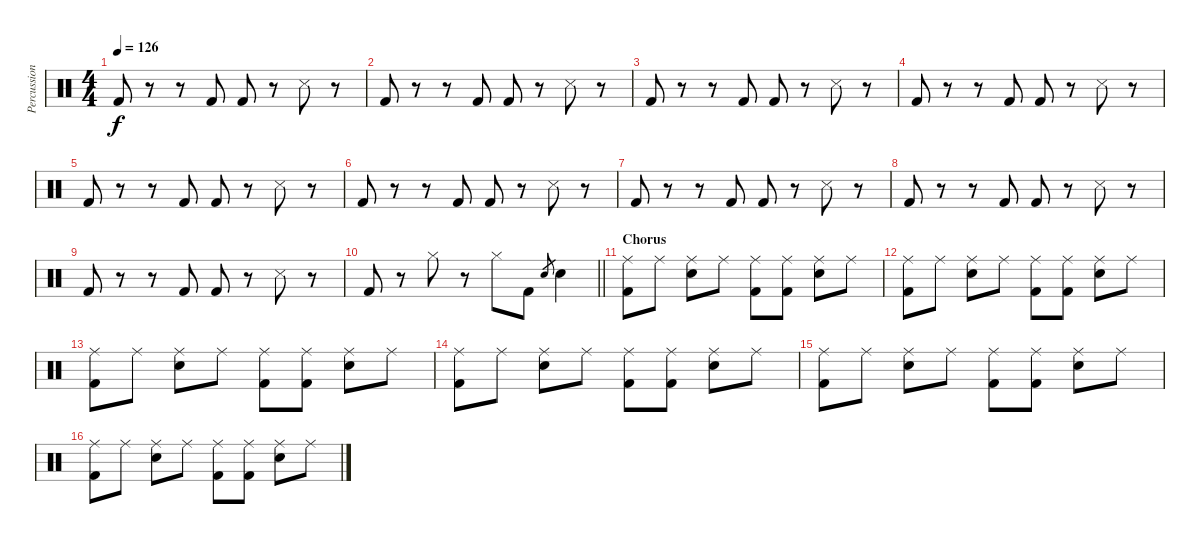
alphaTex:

\track ("Percussions" "Percussion") {instrument percussion}
\staff {score}
\articulation defaults
\ts (4 4)
\tempo 126
\clef neutral
\ks c "Kick (hit) 2".8{dy f}
r.8 r.8 "Kick (hit) 2".8 "Kick (hit) 2".8 r.8 "Snare (side stick) 3".8 r.8 |
"Kick (hit) 2".8 r.8 r.8 "Kick (hit) 2".8 "Kick (hit) 2".8 r.8 "Snare (side stick) 3".8 r.8 |
"Kick (hit) 2".8 r.8 r.8 "Kick (hit) 2".8 "Kick (hit) 2".8 r.8 "Snare (side stick) 3".8 r.8 |
"Kick (hit) 2".8 r.8 r.8 "Kick (hit) 2".8 "Kick (hit) 2".8 r.8 "Snare (side stick) 3".8 r.8 |
"Kick (hit) 2".8 r.8 r.8 "Kick (hit) 2".8 "Kick (hit) 2".8 r.8 "Snare (side stick) 3".8 r.8 |
"Kick (hit) 2".8 r.8 r.8 "Kick (hit) 2".8 "Kick (hit) 2".8 r.8 "Snare (side stick) 3".8 r.8 |
"Kick (hit) 2".8 r.8 r.8 "Kick (hit) 2".8 "Kick (hit) 2".8 r.8 "Snare (side stick) 3".8 r.8 |
"Kick (hit) 2".8 r.8 r.8 "Kick (hit) 2".8 "Kick (hit) 2".8 r.8 "Snare (side stick) 3".8 r.8 |
"Kick (hit) 2".8 r.8 r.8 "Kick (hit) 2".8 "Kick (hit) 2".8 r.8 "Snare (side stick) 3".8 r.8 |
\barLineRight lightlight "Kick (hit) 2".8
r.8 "Hi-Hat (closed)".8 r.8 "Hi-Hat (closed)".8 "Kick (hit) 2".8 "Snare (hit) 2".8{gr} "Snare (hit) 2".4 |
\section ("" "Chorus")
("Ride (middle)" "Kick (hit) 2").8 "Ride (middle)".8 ("Ride (middle)" "Snare (hit) 2").8 "Ride (middle)".8 ("Ride (middle)" "Kick (hit) 2").8 ("Ride (middle)" "Kick (hit) 2").8 ("Ride (middle)" "Snare (hit) 2").8 "Ride (middle)".8 |
("Ride (middle)" "Kick (hit) 2").8 "Ride (middle)".8 ("Ride (middle)" "Snare (hit) 2").8 "Ride (middle)".8 ("Ride (middle)" "Kick (hit) 2").8 ("Ride (middle)" "Kick (hit) 2").8 ("Ride (middle)" "Snare (hit) 2").8 "Ride (middle)".8 |
("Ride (middle)" "Kick (hit) 2").8 "Ride (middle)".8 ("Ride (middle)" "Snare (hit) 2").8 "Ride (middle)".8 ("Ride (middle)" "Kick (hit) 2").8 ("Ride (middle)" "Kick (hit) 2").8 ("Ride (middle)" "Snare (hit) 2").8 "Ride (middle)".8 |
("Ride (middle)" "Kick (hit) 2").8 "Ride (middle)".8 ("Ride (middle)" "Snare (hit) 2").8 "Ride (middle)".8 ("Ride (middle)" "Kick (hit) 2").8 ("Ride (middle)" "Kick (hit) 2").8 ("Ride (middle)" "Snare (hit) 2").8 "Ride (middle)".8 |
("Ride (middle)" "Kick (hit) 2").8 "Ride (middle)".8 ("Ride (middle)" "Snare (hit) 2").8 "Ride (middle)".8 ("Ride (middle)" "Kick (hit) 2").8 ("Ride (middle)" "Kick (hit) 2").8 ("Ride (middle)" "Snare (hit) 2").8 "Ride (middle)".8 |
("Ride (middle)" "Kick (hit) 2").8 "Ride (middle)".8 ("Ride (middle)" "Snare (hit) 2").8 "Ride (middle)".8 ("Ride (middle)" "Kick (hit) 2").8 ("Ride (middle)" "Kick (hit) 2").8 ("Ride (middle)" "Snare (hit) 2").8 "Ride (middle)".8
